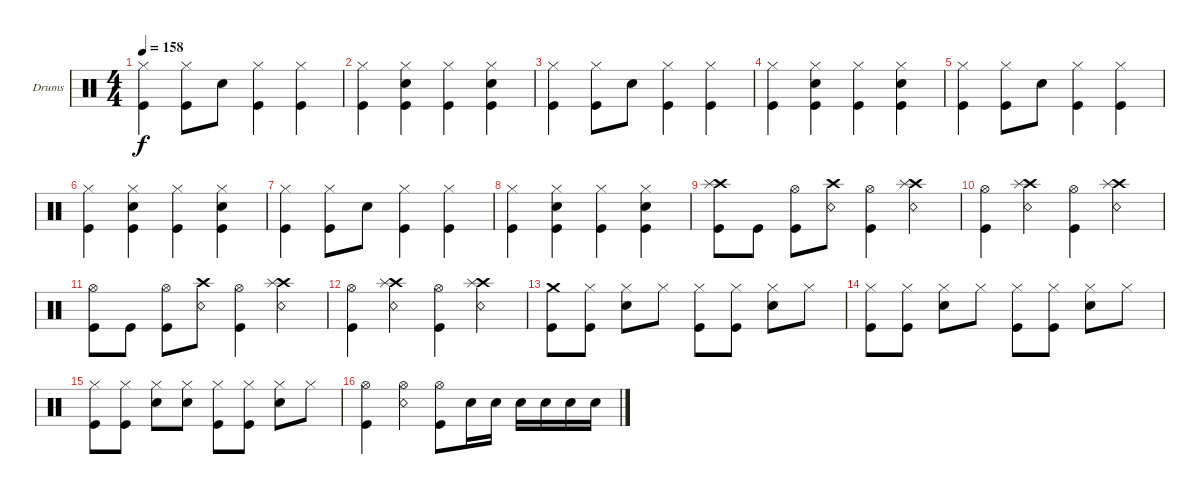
\bracketExtendMode groupsimilarinstruments
\firstSystemTrackNameOrientation horizontal
\otherSystemsTrackNameOrientation horizontal
\track ("Drumkit" "Drums") {instrument percussion}
\staff {score}
\articulation defaults
\ts (4 4)
\tempo 158
\clef neutral
\ks c
("Hi-Hat (closed)" "Kick (hit)").4{dy f} ("Hi-Hat (closed)" "Kick (hit)").8 "Snare (hit) 2".8 ("Hi-Hat (closed)" "Kick (hit)").4 ("Hi-Hat (closed)" "Kick (hit)").4 |
("Hi-Hat (closed)" "Kick (hit)").4 ("Hi-Hat (closed)" "Snare (hit) 2" "Kick (hit)").4 ("Hi-Hat (closed)" "Kick (hit)").4 ("Hi-Hat (closed)" "Snare (hit) 2" "Kick (hit)").4 |
("Hi-Hat (closed)" "Kick (hit)").4 ("Hi-Hat (closed)" "Kick (hit)").8 "Snare (hit) 2".8 ("Hi-Hat (closed)" "Kick (hit)").4 ("Hi-Hat (closed)" "Kick (hit)").4 |
("Hi-Hat (closed)" "Kick (hit)").4 ("Hi-Hat (closed)" "Snare (hit) 2" "Kick (hit)").4 ("Hi-Hat (closed)" "Kick (hit)").4 ("Hi-Hat (closed)" "Snare (hit) 2" "Kick (hit)").4 |
("Hi-Hat (closed)" "Kick (hit)").4 ("Hi-Hat (closed)" "Kick (hit)").8 "Snare (hit) 2".8 ("Hi-Hat (closed)" "Kick (hit)").4 ("Hi-Hat (closed)" "Kick (hit)").4 |
("Hi-Hat (closed)" "Kick (hit)").4 ("Hi-Hat (closed)" "Snare (hit) 2" "Kick (hit)").4 ("Hi-Hat (closed)" "Kick (hit)").4 ("Hi-Hat (closed)" "Snare (hit) 2" "Kick (hit)").4 |
("Hi-Hat (closed)" "Kick (hit)").4 ("Hi-Hat (closed)" "Kick (hit)").8 "Snare (hit) 2".8 ("Hi-Hat (closed)" "Kick (hit)").4 ("Hi-Hat (closed)" "Kick (hit)").4 |
("Hi-Hat (closed)" "Kick (hit)").4 ("Hi-Hat (closed)" "Snare (hit) 2" "Kick (hit)").4 ("Hi-Hat (closed)" "Kick (hit)").4 ("Hi-Hat (closed)" "Snare (hit) 2" "Kick (hit)").4 |
("Kick (hit)" "Crash high (hit)" "Splash (hit)").8 "Kick (hit)".8 ("Hi-Hat (open)" "Kick (hit)").8 ("Snare (rim shot)" "Crash high (hit)").8 ("Hi-Hat (open)" "Kick (hit)").4 ("Snare (rim shot)" "Crash high (hit)" "Splash (hit)").4 |
("Hi-Hat (open)" "Kick (hit)").4 ("Snare (rim shot)" "Crash high (hit)" "Splash (hit)").4 ("Hi-Hat (open)" "Kick (hit)").4 ("Snare (rim shot)" "Crash high (hit)" "Splash (hit)").4 |
("Hi-Hat (open)" "Kick (hit)").8 "Kick (hit)".8 ("Hi-Hat (open)" "Kick (hit)").8 ("Snare (rim shot)" "Crash high (hit)").8 ("Hi-Hat (open)" "Kick (hit)").4 ("Snare (rim shot)" "Crash high (hit)" "Splash (hit)").4 |
("Hi-Hat (open)" "Kick (hit)").4 ("Snare (rim shot)" "Crash high (hit)" "Splash (hit)").4 ("Hi-Hat (open)" "Kick (hit)").4 ("Snare (rim shot)" "Crash high (hit)" "Splash (hit)").4 |
("Kick (hit)" "Crash medium (hit)").8 ("Hi-Hat (closed)" "Kick (hit)").8 ("Hi-Hat (closed)" "Snare (hit) 2").8 "Hi-Hat (closed)".8 ("Hi-Hat (closed)" "Kick (hit)").8 ("Hi-Hat (closed)" "Kick (hit)").8 ("Hi-Hat (closed)" "Snare (hit) 2").8 "Hi-Hat (closed)".8 |
("Hi-Hat (closed)" "Kick (hit)").8 ("Hi-Hat (closed)" "Kick (hit)").8 ("Hi-Hat (closed)" "Snare (hit) 2").8 "Hi-Hat (closed)".8 ("Hi-Hat (closed)" "Kick (hit)").8 ("Hi-Hat (closed)" "Kick (hit)").8 ("Hi-Hat (closed)" "Snare (hit) 2").8 "Hi-Hat (closed)".8 |
("Hi-Hat (closed)" "Kick (hit)").8 ("Hi-Hat (closed)" "Kick (hit)").8 ("Hi-Hat (closed)" "Snare (hit) 2").8 ("Hi-Hat (closed)" "Snare (hit) 2").8 ("Hi-Hat (closed)" "Kick (hit)").8 ("Hi-Hat (closed)" "Kick (hit)").8 ("Hi-Hat (closed)" "Snare (hit) 2").8 "Hi-Hat (closed)".8 |
("Hi-Hat (open)" "Kick (hit)").4 ("Hi-Hat (open)" "Snare (rim shot)").4 ("Hi-Hat (open)" "Kick (hit)").8 "Snare (hit) 2".16 "Snare (hit) 2".16 "Snare (hit) 2".16 "Snare (hit) 2".16 "Snare (hit) 2".16 "Snare (hit) 2".16
